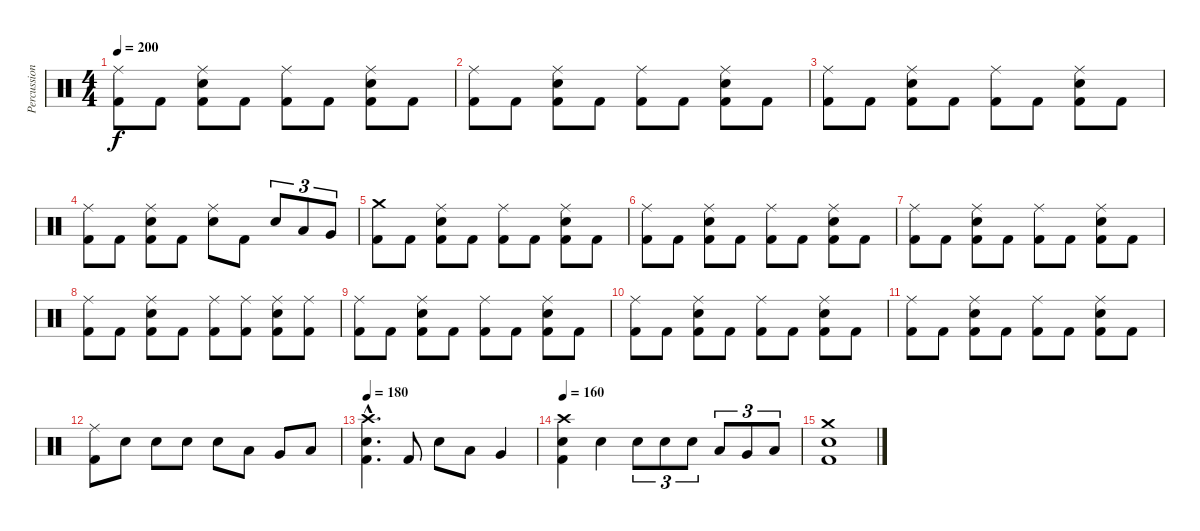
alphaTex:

\track ("Percussion" "Percussion") {instrument percussion}
\staff {score}
\articulation defaults
\ts (4 4)
\tempo 200
\clef neutral
\ks c
("Ride (middle)" "Kick (hit) 2").8{dy f} "Kick (hit) 2".8 ("Ride (middle)" "Snare (hit) 2" "Kick (hit) 2").8 "Kick (hit) 2".8 ("Ride (middle)" "Kick (hit) 2").8 "Kick (hit) 2".8 ("Ride (middle)" "Snare (hit) 2" "Kick (hit) 2").8 "Kick (hit) 2".8 |
("Ride (middle)" "Kick (hit) 2").8 "Kick (hit) 2".8 ("Ride (middle)" "Snare (hit) 2" "Kick (hit) 2").8 "Kick (hit) 2".8 ("Ride (middle)" "Kick (hit) 2").8 "Kick (hit) 2".8 ("Ride (middle)" "Snare (hit) 2" "Kick (hit) 2").8 "Kick (hit) 2".8 |
("Ride (middle)" "Kick (hit) 2").8 "Kick (hit) 2".8 ("Ride (middle)" "Snare (hit) 2" "Kick (hit) 2").8 "Kick (hit) 2".8 ("Ride (middle)" "Kick (hit) 2").8 "Kick (hit) 2".8 ("Ride (middle)" "Snare (hit) 2" "Kick (hit) 2").8 "Kick (hit) 2".8 |
("Ride (middle)" "Kick (hit) 2").8 "Kick (hit) 2".8 ("Ride (middle)" "Snare (hit) 2" "Kick (hit) 2").8 "Kick (hit) 2".8 ("Ride (middle)" "Snare (hit) 2").8 "Kick (hit) 2".8 "Snare (hit) 2".8{tu (3 2)} "Low Tom (hit)".8{tu (3 2)} "Very Low Tom (hit)".8{tu (3 2)} |
("Crash medium (hit)" "Kick (hit) 2").8 "Kick (hit) 2".8 ("Ride (middle)" "Snare (hit) 2" "Kick (hit) 2").8 "Kick (hit) 2".8 ("Ride (middle)" "Kick (hit) 2").8 "Kick (hit) 2".8 ("Ride (middle)" "Snare (hit) 2" "Kick (hit) 2").8 "Kick (hit) 2".8 |
("Ride (middle)" "Kick (hit) 2").8 "Kick (hit) 2".8 ("Ride (middle)" "Snare (hit) 2" "Kick (hit) 2").8 "Kick (hit) 2".8 ("Ride (middle)" "Kick (hit) 2").8 "Kick (hit) 2".8 ("Ride (middle)" "Snare (hit) 2" "Kick (hit) 2").8 "Kick (hit) 2".8 |
("Ride (middle)" "Kick (hit) 2").8 "Kick (hit) 2".8 ("Ride (middle)" "Snare (hit) 2" "Kick (hit) 2").8 "Kick (hit) 2".8 ("Ride (middle)" "Kick (hit) 2").8 "Kick (hit) 2".8 ("Ride (middle)" "Snare (hit) 2" "Kick (hit) 2").8 "Kick (hit) 2".8 |
("Ride (middle)" "Kick (hit) 2").8 "Kick (hit) 2".8 ("Ride (middle)" "Snare (hit) 2" "Kick (hit) 2").8 "Kick (hit) 2".8 ("Ride (middle)" "Kick (hit) 2").8 ("Ride (middle)" "Kick (hit) 2").8 ("Ride (middle)" "Snare (hit) 2" "Kick (hit) 2").8 ("Ride (middle)" "Kick (hit) 2").8 |
("Ride (middle)" "Kick (hit) 2").8 "Kick (hit) 2".8 ("Ride (middle)" "Snare (hit) 2" "Kick (hit) 2").8 "Kick (hit) 2".8 ("Ride (middle)" "Kick (hit) 2").8 "Kick (hit) 2".8 ("Ride (middle)" "Snare (hit) 2" "Kick (hit) 2").8 "Kick (hit) 2".8 |
("Ride (middle)" "Kick (hit) 2").8 "Kick (hit) 2".8 ("Ride (middle)" "Snare (hit) 2" "Kick (hit) 2").8 "Kick (hit) 2".8 ("Ride (middle)" "Kick (hit) 2").8 "Kick (hit) 2".8 ("Ride (middle)" "Snare (hit) 2" "Kick (hit) 2").8 "Kick (hit) 2".8 |
("Ride (middle)" "Kick (hit) 2").8 "Kick (hit) 2".8 ("Ride (middle)" "Snare (hit) 2" "Kick (hit) 2").8 "Kick (hit) 2".8 ("Ride (middle)" "Kick (hit) 2").8 "Kick (hit) 2".8 ("Ride (middle)" "Snare (hit) 2" "Kick (hit) 2").8 "Kick (hit) 2".8 |
("Ride (middle)" "Kick (hit) 2").8 "Snare (hit) 2".8 "Snare (hit) 2".8 "Snare (hit) 2".8 "Snare (hit) 2".8 "Low Tom (hit)".8 "Very Low Tom (hit)".8 "Low Floor Tom (hit)".8 |
\tempo 180
("Crash high (hit)"{hac} "Snare (hit) 2"{hac} "Kick (hit) 2"{hac}).4{d} "Kick (hit) 2".8 "Snare (hit) 2".8 "Low Tom (hit)".8 "Very Low Tom (hit)".4 |
\tempo 160
("Crash high (hit)" "Snare (hit) 2" "Kick (hit) 2").4 "Snare (hit) 2".4 "Snare (hit) 2".8{tu (3 2)} "Snare (hit) 2".8{tu (3 2)} "Snare (hit) 2".8{tu (3 2)} "Low Tom (hit)".8{tu (3 2)} "Very Low Tom (hit)".8{tu (3 2)} "Low Floor Tom (hit)".8{tu (3 2)} |
("Crash medium (hit)" "Snare (hit) 2" "Kick (hit) 2").1
